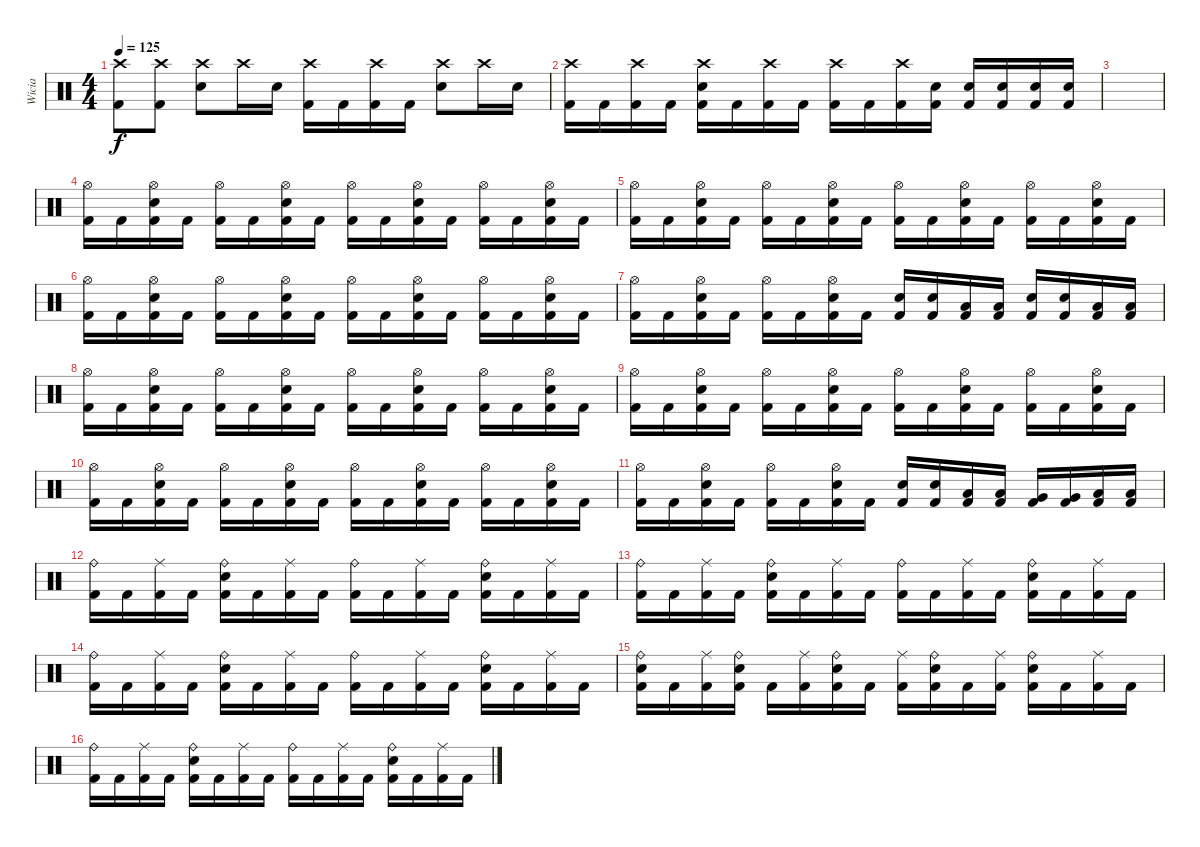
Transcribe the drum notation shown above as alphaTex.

\track ("Wicia" "Wicia") {instrument percussion}
\staff {score}
\articulation defaults
\ts (4 4)
\tempo 125
\clef neutral
\ks c
("Crash high (hit)" "Kick (hit) 2").8{dy f} ("Crash high (hit)" "Kick (hit) 2").8 ("Crash high (hit)" "Electric Snare (hit)").8 "Crash high (hit)".16 "Electric Snare (hit)".16 ("Crash high (hit)" "Kick (hit) 2").16 "Kick (hit) 2".16 ("Crash high (hit)" "Kick (hit) 2").16 "Kick (hit) 2".16 ("Crash high (hit)" "Electric Snare (hit)").8 "Crash high (hit)".16 "Electric Snare (hit)".16 |
("Crash high (hit)" "Kick (hit) 2").16 "Kick (hit) 2".16 ("Crash high (hit)" "Kick (hit) 2").16 "Kick (hit) 2".16 ("Crash high (hit)" "Electric Snare (hit)" "Kick (hit) 2").16 "Kick (hit) 2".16 ("Crash high (hit)" "Kick (hit) 2").16 "Kick (hit) 2".16 ("Crash high (hit)" "Kick (hit) 2").16 "Kick (hit) 2".16 ("Crash high (hit)" "Kick (hit) 2").16 ("Electric Snare (hit)" "Kick (hit) 2").16 ("Electric Snare (hit)" "Kick (hit) 2").16 ("Electric Snare (hit)" "Kick (hit) 2").16 ("Electric Snare (hit)" "Kick (hit) 2").16 ("Electric Snare (hit)" "Kick (hit) 2").16 |
|
("Hi-Hat (open)" "Kick (hit) 2").16 "Kick (hit) 2".16 ("Hi-Hat (open)" "Electric Snare (hit)" "Kick (hit) 2").16 "Kick (hit) 2".16 ("Hi-Hat (open)" "Kick (hit) 2").16 "Kick (hit) 2".16 ("Hi-Hat (open)" "Electric Snare (hit)" "Kick (hit) 2").16 "Kick (hit) 2".16 ("Hi-Hat (open)" "Kick (hit) 2").16 "Kick (hit) 2".16 ("Hi-Hat (open)" "Electric Snare (hit)" "Kick (hit) 2").16 "Kick (hit) 2".16 ("Hi-Hat (open)" "Kick (hit) 2").16 "Kick (hit) 2".16 ("Hi-Hat (open)" "Electric Snare (hit)" "Kick (hit) 2").16 "Kick (hit) 2".16 |
("Hi-Hat (open)" "Kick (hit) 2").16 "Kick (hit) 2".16 ("Hi-Hat (open)" "Electric Snare (hit)" "Kick (hit) 2").16 "Kick (hit) 2".16 ("Hi-Hat (open)" "Kick (hit) 2").16 "Kick (hit) 2".16 ("Hi-Hat (open)" "Electric Snare (hit)" "Kick (hit) 2").16 "Kick (hit) 2".16 ("Hi-Hat (open)" "Kick (hit) 2").16 "Kick (hit) 2".16 ("Hi-Hat (open)" "Electric Snare (hit)" "Kick (hit) 2").16 "Kick (hit) 2".16 ("Hi-Hat (open)" "Kick (hit) 2").16 "Kick (hit) 2".16 ("Hi-Hat (open)" "Electric Snare (hit)" "Kick (hit) 2").16 "Kick (hit) 2".16 |
("Hi-Hat (open)" "Kick (hit) 2").16 "Kick (hit) 2".16 ("Hi-Hat (open)" "Electric Snare (hit)" "Kick (hit) 2").16 "Kick (hit) 2".16 ("Hi-Hat (open)" "Kick (hit) 2").16 "Kick (hit) 2".16 ("Hi-Hat (open)" "Electric Snare (hit)" "Kick (hit) 2").16 "Kick (hit) 2".16 ("Hi-Hat (open)" "Kick (hit) 2").16 "Kick (hit) 2".16 ("Hi-Hat (open)" "Electric Snare (hit)" "Kick (hit) 2").16 "Kick (hit) 2".16 ("Hi-Hat (open)" "Kick (hit) 2").16 "Kick (hit) 2".16 ("Hi-Hat (open)" "Electric Snare (hit)" "Kick (hit) 2").16 "Kick (hit) 2".16 |
("Hi-Hat (open)" "Kick (hit) 2").16 "Kick (hit) 2".16 ("Hi-Hat (open)" "Electric Snare (hit)" "Kick (hit) 2").16 "Kick (hit) 2".16 ("Hi-Hat (open)" "Kick (hit) 2").16 "Kick (hit) 2".16 ("Hi-Hat (open)" "Electric Snare (hit)" "Kick (hit) 2").16 "Kick (hit) 2".16 ("Electric Snare (hit)" "Kick (hit) 2").16 ("Electric Snare (hit)" "Kick (hit) 2").16 ("Low Tom (hit)" "Kick (hit) 2").16 ("Low Tom (hit)" "Kick (hit) 2").16 ("Electric Snare (hit)" "Kick (hit) 2").16 ("Electric Snare (hit)" "Kick (hit) 2").16 ("Low Tom (hit)" "Kick (hit) 2").16 ("Low Tom (hit)" "Kick (hit) 2").16 |
("Hi-Hat (open)" "Kick (hit) 2").16 "Kick (hit) 2".16 ("Hi-Hat (open)" "Electric Snare (hit)" "Kick (hit) 2").16 "Kick (hit) 2".16 ("Hi-Hat (open)" "Kick (hit) 2").16 "Kick (hit) 2".16 ("Hi-Hat (open)" "Electric Snare (hit)" "Kick (hit) 2").16 "Kick (hit) 2".16 ("Hi-Hat (open)" "Kick (hit) 2").16 "Kick (hit) 2".16 ("Hi-Hat (open)" "Electric Snare (hit)" "Kick (hit) 2").16 "Kick (hit) 2".16 ("Hi-Hat (open)" "Kick (hit) 2").16 "Kick (hit) 2".16 ("Hi-Hat (open)" "Electric Snare (hit)" "Kick (hit) 2").16 "Kick (hit) 2".16 |
("Hi-Hat (open)" "Kick (hit) 2").16 "Kick (hit) 2".16 ("Hi-Hat (open)" "Electric Snare (hit)" "Kick (hit) 2").16 "Kick (hit) 2".16 ("Hi-Hat (open)" "Kick (hit) 2").16 "Kick (hit) 2".16 ("Hi-Hat (open)" "Electric Snare (hit)" "Kick (hit) 2").16 "Kick (hit) 2".16 ("Hi-Hat (open)" "Kick (hit) 2").16 "Kick (hit) 2".16 ("Hi-Hat (open)" "Electric Snare (hit)" "Kick (hit) 2").16 "Kick (hit) 2".16 ("Hi-Hat (open)" "Kick (hit) 2").16 "Kick (hit) 2".16 ("Hi-Hat (open)" "Electric Snare (hit)" "Kick (hit) 2").16 "Kick (hit) 2".16 |
("Hi-Hat (open)" "Kick (hit) 2").16 "Kick (hit) 2".16 ("Hi-Hat (open)" "Electric Snare (hit)" "Kick (hit) 2").16 "Kick (hit) 2".16 ("Hi-Hat (open)" "Kick (hit) 2").16 "Kick (hit) 2".16 ("Hi-Hat (open)" "Electric Snare (hit)" "Kick (hit) 2").16 "Kick (hit) 2".16 ("Hi-Hat (open)" "Kick (hit) 2").16 "Kick (hit) 2".16 ("Hi-Hat (open)" "Electric Snare (hit)" "Kick (hit) 2").16 "Kick (hit) 2".16 ("Hi-Hat (open)" "Kick (hit) 2").16 "Kick (hit) 2".16 ("Hi-Hat (open)" "Electric Snare (hit)" "Kick (hit) 2").16 "Kick (hit) 2".16 |
("Hi-Hat (open)" "Kick (hit) 2").16 "Kick (hit) 2".16 ("Hi-Hat (open)" "Electric Snare (hit)" "Kick (hit) 2").16 "Kick (hit) 2".16 ("Hi-Hat (open)" "Kick (hit) 2").16 "Kick (hit) 2".16 ("Hi-Hat (open)" "Electric Snare (hit)" "Kick (hit) 2").16 "Kick (hit) 2".16 ("Electric Snare (hit)" "Kick (hit) 2").16 ("Electric Snare (hit)" "Kick (hit) 2").16 ("Low Tom (hit)" "Kick (hit) 2").16 ("Low Tom (hit)" "Kick (hit) 2").16 ("Very Low Tom (hit)" "Kick (hit) 2").16 ("Very Low Tom (hit)" "Kick (hit) 2").16 ("Low Floor Tom (hit)" "Kick (hit) 2").16 ("Low Floor Tom (hit)" "Kick (hit) 2").16 |
("Ride (bell)" "Kick (hit) 2").16 "Kick (hit) 2".16 ("Ride (middle)" "Kick (hit) 2").16 "Kick (hit) 2".16 ("Ride (bell)" "Electric Snare (hit)" "Kick (hit) 2").16 "Kick (hit) 2".16 ("Ride (middle)" "Kick (hit) 2").16 "Kick (hit) 2".16 ("Ride (bell)" "Kick (hit) 2").16 "Kick (hit) 2".16 ("Ride (middle)" "Kick (hit) 2").16 "Kick (hit) 2".16 ("Ride (bell)" "Electric Snare (hit)" "Kick (hit) 2").16 "Kick (hit) 2".16 ("Ride (middle)" "Kick (hit) 2").16 "Kick (hit) 2".16 |
("Ride (bell)" "Kick (hit) 2").16 "Kick (hit) 2".16 ("Ride (middle)" "Kick (hit) 2").16 "Kick (hit) 2".16 ("Ride (bell)" "Electric Snare (hit)" "Kick (hit) 2").16 "Kick (hit) 2".16 ("Ride (middle)" "Kick (hit) 2").16 "Kick (hit) 2".16 ("Ride (bell)" "Kick (hit) 2").16 "Kick (hit) 2".16 ("Ride (middle)" "Kick (hit) 2").16 "Kick (hit) 2".16 ("Ride (bell)" "Electric Snare (hit)" "Kick (hit) 2").16 "Kick (hit) 2".16 ("Ride (middle)" "Kick (hit) 2").16 "Kick (hit) 2".16 |
("Ride (bell)" "Kick (hit) 2").16 "Kick (hit) 2".16 ("Ride (middle)" "Kick (hit) 2").16 "Kick (hit) 2".16 ("Ride (bell)" "Electric Snare (hit)" "Kick (hit) 2").16 "Kick (hit) 2".16 ("Ride (middle)" "Kick (hit) 2").16 "Kick (hit) 2".16 ("Ride (bell)" "Kick (hit) 2").16 "Kick (hit) 2".16 ("Ride (middle)" "Kick (hit) 2").16 "Kick (hit) 2".16 ("Ride (bell)" "Electric Snare (hit)" "Kick (hit) 2").16 "Kick (hit) 2".16 ("Ride (middle)" "Kick (hit) 2").16 "Kick (hit) 2".16 |
("Ride (bell)" "Electric Snare (hit)" "Kick (hit) 2").16 "Kick (hit) 2".16 ("Ride (middle)" "Kick (hit) 2").16 ("Ride (bell)" "Electric Snare (hit)" "Kick (hit) 2").16 "Kick (hit) 2".16 ("Ride (middle)" "Kick (hit) 2").16 ("Ride (bell)" "Electric Snare (hit)" "Kick (hit) 2").16 "Kick (hit) 2".16 ("Ride (middle)" "Kick (hit) 2").16 ("Ride (bell)" "Electric Snare (hit)" "Kick (hit) 2").16 "Kick (hit) 2".16 ("Ride (middle)" "Kick (hit) 2").16 ("Ride (bell)" "Electric Snare (hit)" "Kick (hit) 2").16 "Kick (hit) 2".16 ("Ride (middle)" "Kick (hit) 2").16 "Kick (hit) 2".16 |
("Ride (bell)" "Kick (hit) 2").16 "Kick (hit) 2".16 ("Ride (middle)" "Kick (hit) 2").16 "Kick (hit) 2".16 ("Ride (bell)" "Electric Snare (hit)" "Kick (hit) 2").16 "Kick (hit) 2".16 ("Ride (middle)" "Kick (hit) 2").16 "Kick (hit) 2".16 ("Ride (bell)" "Kick (hit) 2").16 "Kick (hit) 2".16 ("Ride (middle)" "Kick (hit) 2").16 "Kick (hit) 2".16 ("Ride (bell)" "Electric Snare (hit)" "Kick (hit) 2").16 "Kick (hit) 2".16 ("Ride (middle)" "Kick (hit) 2").16 "Kick (hit) 2".16
